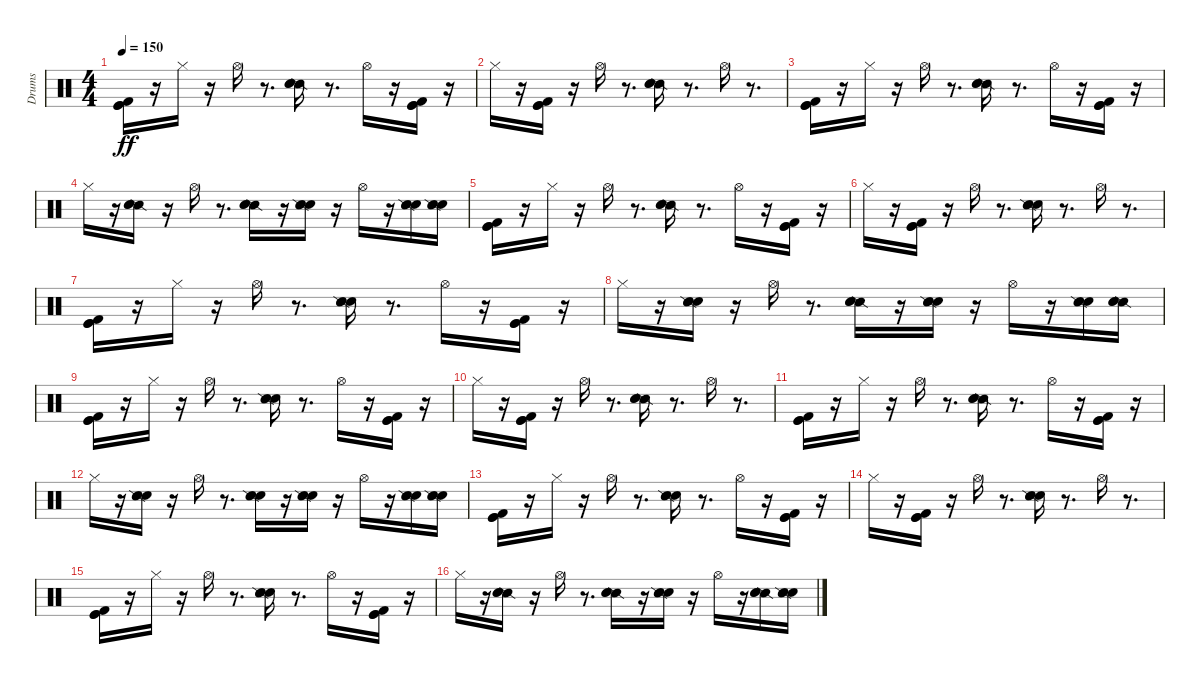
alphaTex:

\track ("Drums" "Drums") {instrument percussion}
\staff {score}
\articulation defaults
\ts (4 4)
\tempo 150
\clef neutral
\ks c
("Kick (hit)" "Kick (hit) 2" "Kick (hit)").16{dy ff} r.16 "Hi-Hat (closed)".16 r.16 "Hi-Hat (open)".16 r.8{d} ("Snare (side stick) 2" "Metronome (bell)" "Electric Snare (hit)").16 r.8{d} "Hi-Hat (open)".16 r.16 ("Kick (hit)" "Kick (hit) 2" "Kick (hit)").16 r.16 |
"Hi-Hat (closed)".16 r.16 ("Kick (hit)" "Kick (hit) 2" "Kick (hit)").16 r.16 "Hi-Hat (open)".16 r.8{d} ("Snare (side stick) 2" "Metronome (bell)" "Electric Snare (hit)").16 r.8{d} "Hi-Hat (open)".16 r.8{d} |
("Kick (hit)" "Kick (hit) 2" "Kick (hit)").16 r.16 "Hi-Hat (closed)".16 r.16 "Hi-Hat (open)".16 r.8{d} ("Snare (side stick) 2" "Metronome (bell)" "Electric Snare (hit)").16 r.8{d} "Hi-Hat (open)".16 r.16 ("Kick (hit)" "Kick (hit) 2" "Kick (hit)").16 r.16 |
"Hi-Hat (closed)".16 r.16 ("Snare (side stick) 2" "Metronome (bell)" "Electric Snare (hit)").16 r.16 "Hi-Hat (open)".16 r.8{d} ("Snare (side stick) 2" "Metronome (bell)" "Electric Snare (hit)").16 r.16 ("Metronome (bell)" "Snare (side stick) 2" "Electric Snare (hit)").16 r.16 "Hi-Hat (open)".16 r.16 ("Metronome (bell)" "Snare (side stick) 2" "Electric Snare (hit)").16 ("Metronome (bell)" "Snare (side stick) 2" "Electric Snare (hit)").16 |
("Kick (hit)" "Kick (hit) 2" "Kick (hit)").16 r.16 "Hi-Hat (closed)".16 r.16 "Hi-Hat (open)".16 r.8{d} ("Snare (side stick) 2" "Metronome (bell)" "Electric Snare (hit)").16 r.8{d} "Hi-Hat (open)".16 r.16 ("Kick (hit)" "Kick (hit) 2" "Kick (hit)").16 r.16 |
"Hi-Hat (closed)".16 r.16 ("Kick (hit)" "Kick (hit) 2" "Kick (hit)").16 r.16 "Hi-Hat (open)".16 r.8{d} ("Metronome (bell)" "Snare (side stick) 2" "Electric Snare (hit)").16 r.8{d} "Hi-Hat (open)".16 r.8{d} |
("Kick (hit)" "Kick (hit) 2" "Kick (hit)").16 r.16 "Hi-Hat (closed)".16 r.16 "Hi-Hat (open)".16 r.8{d} ("Metronome (bell)" "Snare (side stick) 2" "Electric Snare (hit)").16 r.8{d} "Hi-Hat (open)".16 r.16 ("Kick (hit)" "Kick (hit) 2" "Kick (hit)").16 r.16 |
"Hi-Hat (closed)".16 r.16 ("Metronome (bell)" "Snare (side stick) 2" "Electric Snare (hit)").16 r.16 "Hi-Hat (open)".16 r.8{d} ("Snare (side stick) 2" "Metronome (bell)" "Electric Snare (hit)").16 r.16 ("Metronome (bell)" "Snare (side stick) 2" "Electric Snare (hit)").16 r.16 "Hi-Hat (open)".16 r.16 ("Metronome (bell)" "Snare (side stick) 2" "Electric Snare (hit)").16 ("Snare (side stick) 2" "Metronome (bell)" "Electric Snare (hit)").16 |
("Kick (hit)" "Kick (hit) 2" "Kick (hit)").16 r.16 "Hi-Hat (closed)".16 r.16 "Hi-Hat (open)".16 r.8{d} ("Metronome (bell)" "Snare (side stick) 2" "Electric Snare (hit)").16 r.8{d} "Hi-Hat (open)".16 r.16 ("Kick (hit)" "Kick (hit) 2" "Kick (hit)").16 r.16 |
"Hi-Hat (closed)".16 r.16 ("Kick (hit)" "Kick (hit) 2" "Kick (hit)").16 r.16 "Hi-Hat (open)".16 r.8{d} ("Snare (side stick) 2" "Metronome (bell)" "Electric Snare (hit)").16 r.8{d} "Hi-Hat (open)".16 r.8{d} |
("Kick (hit)" "Kick (hit) 2" "Kick (hit)").16 r.16 "Hi-Hat (closed)".16 r.16 "Hi-Hat (open)".16 r.8{d} ("Snare (side stick) 2" "Metronome (bell)" "Electric Snare (hit)").16 r.8{d} "Hi-Hat (open)".16 r.16 ("Kick (hit)" "Kick (hit) 2" "Kick (hit)").16 r.16 |
"Hi-Hat (closed)".16 r.16 ("Metronome (bell)" "Snare (side stick) 2" "Electric Snare (hit)").16 r.16 "Hi-Hat (open)".16 r.8{d} ("Metronome (bell)" "Snare (side stick) 2" "Electric Snare (hit)").16 r.16 ("Metronome (bell)" "Snare (side stick) 2" "Electric Snare (hit)").16 r.16 "Hi-Hat (open)".16 r.16 ("Metronome (bell)" "Snare (side stick) 2" "Electric Snare (hit)").16 ("Metronome (bell)" "Snare (side stick) 2" "Electric Snare (hit)").16 |
("Kick (hit)" "Kick (hit) 2" "Kick (hit)").16 r.16 "Hi-Hat (closed)".16 r.16 "Hi-Hat (open)".16 r.8{d} ("Metronome (bell)" "Snare (side stick) 2" "Electric Snare (hit)").16 r.8{d} "Hi-Hat (open)".16 r.16 ("Kick (hit)" "Kick (hit) 2" "Kick (hit)").16 r.16 |
"Hi-Hat (closed)".16 r.16 ("Kick (hit)" "Kick (hit) 2" "Kick (hit)").16 r.16 "Hi-Hat (open)".16 r.8{d} ("Metronome (bell)" "Snare (side stick) 2" "Electric Snare (hit)").16 r.8{d} "Hi-Hat (open)".16 r.8{d} |
("Kick (hit)" "Kick (hit) 2" "Kick (hit)").16 r.16 "Hi-Hat (closed)".16 r.16 "Hi-Hat (open)".16 r.8{d} ("Metronome (bell)" "Snare (side stick) 2" "Electric Snare (hit)").16 r.8{d} "Hi-Hat (open)".16 r.16 ("Kick (hit)" "Kick (hit) 2" "Kick (hit)").16 r.16 |
"Hi-Hat (closed)".16 r.16 ("Snare (side stick) 2" "Metronome (bell)" "Electric Snare (hit)").16 r.16 "Hi-Hat (open)".16 r.8{d} ("Snare (side stick) 2" "Metronome (bell)" "Electric Snare (hit)").16 r.16 ("Metronome (bell)" "Snare (side stick) 2" "Electric Snare (hit)").16 r.16 "Hi-Hat (open)".16 r.16 ("Snare (side stick) 2" "Metronome (bell)" "Electric Snare (hit)").16 ("Metronome (bell)" "Snare (side stick) 2" "Electric Snare (hit)").16
